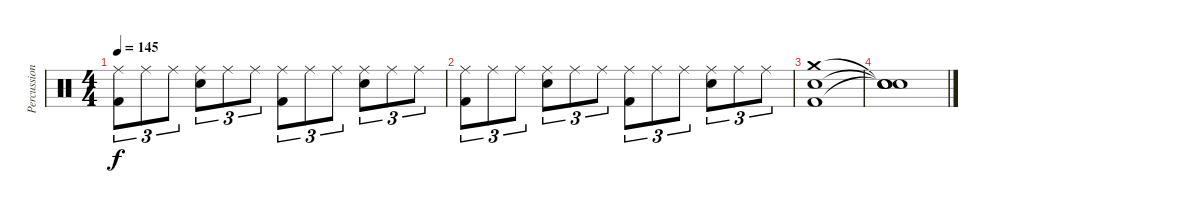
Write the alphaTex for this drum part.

\track ("Percussions" "Percussion") {instrument percussion}
\staff {score}
\articulation defaults
\ts (4 4)
\tempo 145
\clef neutral
\ks c
("Ride (middle)" "Kick (hit) 2").8{tu (3 2) dy f} "Ride (middle)".8{tu (3 2)} "Ride (middle)".8{tu (3 2)} ("Ride (middle)" "Snare (hit) 2").8{tu (3 2)} "Ride (middle)".8{tu (3 2)} "Ride (middle)".8{tu (3 2)} ("Ride (middle)" "Kick (hit) 2").8{tu (3 2)} "Ride (middle)".8{tu (3 2)} "Ride (middle)".8{tu (3 2)} ("Ride (middle)" "Snare (hit) 2").8{tu (3 2)} "Ride (middle)".8{tu (3 2)} "Ride (middle)".8{tu (3 2)} |
("Ride (middle)" "Kick (hit) 2").8{tu (3 2)} "Ride (middle)".8{tu (3 2)} "Ride (middle)".8{tu (3 2)} ("Ride (middle)" "Snare (hit) 2").8{tu (3 2)} "Ride (middle)".8{tu (3 2)} "Ride (middle)".8{tu (3 2)} ("Ride (middle)" "Kick (hit) 2").8{tu (3 2)} "Ride (middle)".8{tu (3 2)} "Ride (middle)".8{tu (3 2)} ("Ride (middle)" "Snare (hit) 2").8{tu (3 2)} "Ride (middle)".8{tu (3 2)} "Ride (middle)".8{tu (3 2)} |
("Crash medium (hit)" "Snare (hit) 2" "Kick (hit) 2").1 |
("Snare (hit)"{t} "Snare (hit)"{t} "Snare (hit)"{t} "Snare (hit)").1
